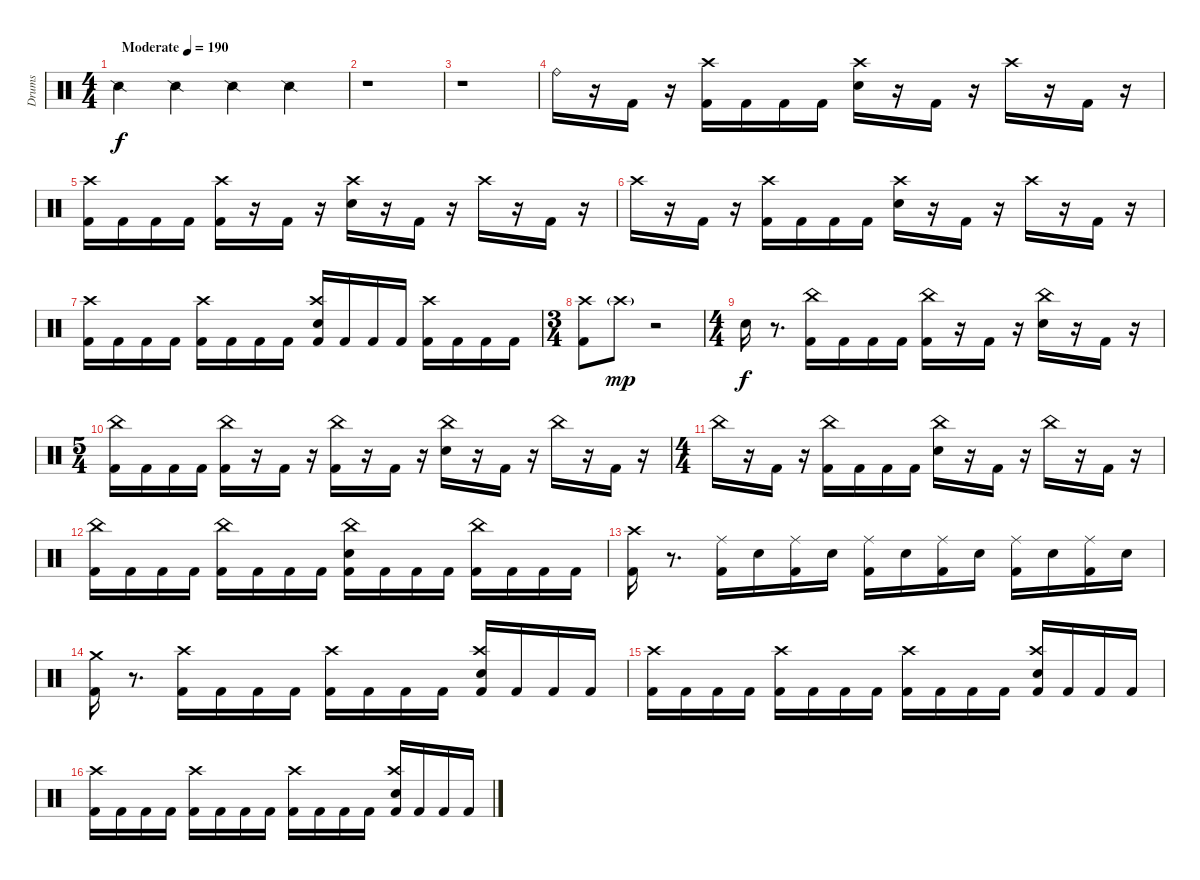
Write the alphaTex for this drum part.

\track ("Drums" "Drums") {instrument percussion}
\staff {score}
\articulation defaults
\ts (4 4)
\tempo (190 "Moderate")
\clef neutral
\ks c "Snare (side stick) 2".4{dy f} "Snare (side stick) 2".4 "Snare (side stick) 2".4 "Snare (side stick) 2".4
|
r.1 |
r.1 |
"Ride (bell)".16 r.16 "Kick (hit) 2".16 r.16 ("Kick (hit) 2" "Crash high (hit)").16 "Kick (hit) 2".16 "Kick (hit) 2".16 "Kick (hit) 2".16 ("Snare (hit) 2" "Crash high (hit)").16 r.16 "Kick (hit) 2".16 r.16 "Crash high (hit)".16 r.16 "Kick (hit) 2".16 r.16 |
("Kick (hit) 2" "Crash high (hit)").16 "Kick (hit) 2".16 "Kick (hit) 2".16 "Kick (hit) 2".16 ("Kick (hit) 2" "Crash high (hit)").16 r.16 "Kick (hit) 2".16 r.16 ("Snare (hit) 2" "Crash high (hit)").16 r.16 "Kick (hit) 2".16 r.16 "Crash high (hit)".16 r.16 "Kick (hit) 2".16 r.16 |
"Crash high (hit)".16 r.16 "Kick (hit) 2".16 r.16 ("Kick (hit) 2" "Crash high (hit)").16 "Kick (hit) 2".16 "Kick (hit) 2".16 "Kick (hit) 2".16 ("Snare (hit) 2" "Crash high (hit)").16 r.16 "Kick (hit) 2".16 r.16 "Crash high (hit)".16 r.16 "Kick (hit) 2".16 r.16 |
("Kick (hit) 2" "Crash high (hit)").16 "Kick (hit) 2".16 "Kick (hit) 2".16 "Kick (hit) 2".16 ("Kick (hit) 2" "Crash high (hit)").16 "Kick (hit) 2".16 "Kick (hit) 2".16 "Kick (hit) 2".16 ("Kick (hit) 2" "Snare (hit) 2" "Crash high (hit)").16 "Kick (hit) 2".16 "Kick (hit) 2".16 "Kick (hit) 2".16 ("Kick (hit) 2" "Crash high (hit)").16 "Kick (hit) 2".16 "Kick (hit) 2".16 "Kick (hit) 2".16 |
\ts (3 4)
("Kick (hit) 2" "Crash high (hit)").8 "Crash high (hit)"{g}.8{dy mp} r.2 |
\ts (4 4)
"Snare (hit) 2".16{dy f} r.8{d} ("Kick (hit) 2" "China (hit)").16 "Kick (hit) 2".16 "Kick (hit) 2".16 "Kick (hit) 2".16 ("Kick (hit) 2" "China (hit)").16 r.16 "Kick (hit) 2".16 r.16 ("Snare (hit) 2" "China (hit)").16 r.16 "Kick (hit) 2".16 r.16 |
\ts (5 4)
("Kick (hit) 2" "China (hit)").16 "Kick (hit) 2".16 "Kick (hit) 2".16 "Kick (hit) 2".16 ("Kick (hit) 2" "China (hit)").16 r.16 "Kick (hit) 2".16 r.16 ("Kick (hit) 2" "China (hit)").16 r.16 "Kick (hit) 2".16 r.16 ("Snare (hit) 2" "China (hit)").16 r.16 "Kick (hit) 2".16 r.16 "China (hit)".16 r.16 "Kick (hit) 2".16 r.16 |
\ts (4 4)
"China (hit)".16 r.16 "Kick (hit) 2".16 r.16 ("Kick (hit) 2" "China (hit)").16 "Kick (hit) 2".16 "Kick (hit) 2".16 "Kick (hit) 2".16 ("Snare (hit) 2" "China (hit)").16 r.16 "Kick (hit) 2".16 r.16 "China (hit)".16 r.16 "Kick (hit) 2".16 r.16 |
("Kick (hit) 2" "China (hit)").16 "Kick (hit) 2".16 "Kick (hit) 2".16 "Kick (hit) 2".16 ("Kick (hit) 2" "China (hit)").16 "Kick (hit) 2".16 "Kick (hit) 2".16 "Kick (hit) 2".16 ("Kick (hit) 2" "Snare (hit) 2" "China (hit)").16 "Kick (hit) 2".16 "Kick (hit) 2".16 "Kick (hit) 2".16 ("Kick (hit) 2" "China (hit)").16 "Kick (hit) 2".16 "Kick (hit) 2".16 "Kick (hit) 2".16 |
("Kick (hit) 2" "Crash high (hit)").16 r.8{d} ("Kick (hit) 2" "Ride (middle)").16 "Snare (hit) 2".16 ("Kick (hit) 2" "Ride (middle)").16 "Snare (hit) 2".16 ("Kick (hit) 2" "Ride (middle)").16 "Snare (hit) 2".16 ("Kick (hit) 2" "Ride (middle)").16 "Snare (hit) 2".16 ("Kick (hit) 2" "Ride (middle)").16 "Snare (hit) 2".16 ("Kick (hit) 2" "Ride (middle)").16 "Snare (hit) 2".16 |
("Kick (hit) 2" "Crash medium (hit)").16 r.8{d} ("Kick (hit) 2" "Crash high (hit)").16 "Kick (hit) 2".16 "Kick (hit) 2".16 "Kick (hit) 2".16 ("Kick (hit) 2" "Crash high (hit)").16 "Kick (hit) 2".16 "Kick (hit) 2".16 "Kick (hit) 2".16 ("Kick (hit) 2" "Snare (hit) 2" "Crash high (hit)").16 "Kick (hit) 2".16 "Kick (hit) 2".16 "Kick (hit) 2".16 |
("Kick (hit) 2" "Crash high (hit)").16 "Kick (hit) 2".16 "Kick (hit) 2".16 "Kick (hit) 2".16 ("Kick (hit) 2" "Crash high (hit)").16 "Kick (hit) 2".16 "Kick (hit) 2".16 "Kick (hit) 2".16 ("Kick (hit) 2" "Crash high (hit)").16 "Kick (hit) 2".16 "Kick (hit) 2".16 "Kick (hit) 2".16 ("Kick (hit) 2" "Snare (hit) 2" "Crash high (hit)").16 "Kick (hit) 2".16 "Kick (hit) 2".16 "Kick (hit) 2".16 |
("Kick (hit) 2" "Crash high (hit)").16 "Kick (hit) 2".16 "Kick (hit) 2".16 "Kick (hit) 2".16 ("Kick (hit) 2" "Crash high (hit)").16 "Kick (hit) 2".16 "Kick (hit) 2".16 "Kick (hit) 2".16 ("Kick (hit) 2" "Crash high (hit)").16 "Kick (hit) 2".16 "Kick (hit) 2".16 "Kick (hit) 2".16 ("Kick (hit) 2" "Snare (hit) 2" "Crash high (hit)").16 "Kick (hit) 2".16 "Kick (hit) 2".16 "Kick (hit) 2".16
